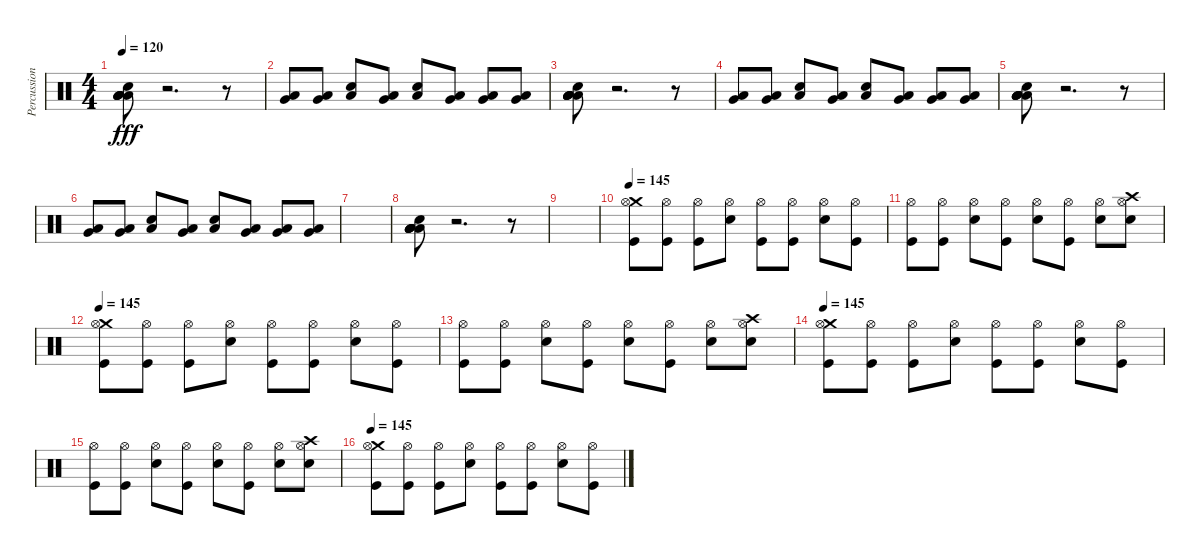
\track ("Percussion" "Percussion") {instrument percussion}
\staff {score}
\articulation defaults
\ts (4 4)
\tempo 120
\clef neutral
\ks c
("Snare (hit) 2" "Low Floor Tom (hit)" "Low Floor Tom (hit)" "Low Floor Tom (hit)" "Low Floor Tom (hit)" "Low Floor Tom (hit)").8{dy fff} r.2{d} r.8 |
("Very Low Tom (hit)" "Low Floor Tom (hit)").8 ("Very Low Tom (hit)" "Low Floor Tom (hit)").8 ("Snare (hit) 2" "Low Floor Tom (hit)").8 ("Very Low Tom (hit)" "Low Floor Tom (hit)").8 ("Snare (hit) 2" "Low Floor Tom (hit)").8 ("Very Low Tom (hit)" "Low Floor Tom (hit)").8 ("Very Low Tom (hit)" "Low Floor Tom (hit)").8 ("Very Low Tom (hit)" "Low Floor Tom (hit)").8 |
("Snare (hit) 2" "Low Floor Tom (hit)" "Low Floor Tom (hit)" "Low Floor Tom (hit)" "Low Floor Tom (hit)" "Low Floor Tom (hit)").8 r.2{d} r.8 |
("Very Low Tom (hit)" "Low Floor Tom (hit)").8 ("Very Low Tom (hit)" "Low Floor Tom (hit)").8 ("Snare (hit) 2" "Low Floor Tom (hit)").8 ("Very Low Tom (hit)" "Low Floor Tom (hit)").8 ("Snare (hit) 2" "Low Floor Tom (hit)").8 ("Very Low Tom (hit)" "Low Floor Tom (hit)").8 ("Very Low Tom (hit)" "Low Floor Tom (hit)").8 ("Very Low Tom (hit)" "Low Floor Tom (hit)").8 |
("Snare (hit) 2" "Low Floor Tom (hit)" "Low Floor Tom (hit)" "Low Floor Tom (hit)" "Low Floor Tom (hit)" "Low Floor Tom (hit)").8 r.2{d} r.8 |
("Very Low Tom (hit)" "Low Floor Tom (hit)").8 ("Very Low Tom (hit)" "Low Floor Tom (hit)").8 ("Snare (hit) 2" "Low Floor Tom (hit)").8 ("Very Low Tom (hit)" "Low Floor Tom (hit)").8 ("Snare (hit) 2" "Low Floor Tom (hit)").8 ("Very Low Tom (hit)" "Low Floor Tom (hit)").8 ("Very Low Tom (hit)" "Low Floor Tom (hit)").8 ("Very Low Tom (hit)" "Low Floor Tom (hit)").8 |
|
("Snare (hit) 2" "Low Floor Tom (hit)" "Low Floor Tom (hit)" "Low Floor Tom (hit)" "Low Floor Tom (hit)" "Low Floor Tom (hit)").8 r.2{d} r.8 |
|
\tempo 145
("Crash medium (hit)" "Kick (hit)" "Hi-Hat (open)").8 ("Kick (hit)" "Hi-Hat (open)").8 ("Kick (hit)" "Hi-Hat (open)").8 ("Snare (hit) 2" "Hi-Hat (open)").8 ("Kick (hit)" "Hi-Hat (open)").8 ("Kick (hit)" "Hi-Hat (open)").8 ("Snare (hit) 2" "Hi-Hat (open)").8 ("Kick (hit)" "Hi-Hat (open)").8 |
("Kick (hit)" "Hi-Hat (open)").8 ("Kick (hit)" "Hi-Hat (open)").8 ("Snare (hit) 2" "Hi-Hat (open)").8 ("Kick (hit)" "Hi-Hat (open)").8 ("Snare (hit) 2" "Hi-Hat (open)").8 ("Kick (hit)" "Hi-Hat (open)").8 ("Snare (hit) 2" "Hi-Hat (open)").8 ("Crash high (hit)" "Snare (hit) 2" "Hi-Hat (open)").8 |
\tempo 145
("Crash medium (hit)" "Kick (hit)" "Hi-Hat (open)").8 ("Kick (hit)" "Hi-Hat (open)").8 ("Kick (hit)" "Hi-Hat (open)").8 ("Snare (hit) 2" "Hi-Hat (open)").8 ("Kick (hit)" "Hi-Hat (open)").8 ("Kick (hit)" "Hi-Hat (open)").8 ("Snare (hit) 2" "Hi-Hat (open)").8 ("Kick (hit)" "Hi-Hat (open)").8 |
("Kick (hit)" "Hi-Hat (open)").8 ("Kick (hit)" "Hi-Hat (open)").8 ("Snare (hit) 2" "Hi-Hat (open)").8 ("Kick (hit)" "Hi-Hat (open)").8 ("Snare (hit) 2" "Hi-Hat (open)").8 ("Kick (hit)" "Hi-Hat (open)").8 ("Snare (hit) 2" "Hi-Hat (open)").8 ("Crash high (hit)" "Snare (hit) 2" "Hi-Hat (open)").8 |
\tempo 145
("Crash medium (hit)" "Kick (hit)" "Hi-Hat (open)").8 ("Kick (hit)" "Hi-Hat (open)").8 ("Kick (hit)" "Hi-Hat (open)").8 ("Snare (hit) 2" "Hi-Hat (open)").8 ("Kick (hit)" "Hi-Hat (open)").8 ("Kick (hit)" "Hi-Hat (open)").8 ("Snare (hit) 2" "Hi-Hat (open)").8 ("Kick (hit)" "Hi-Hat (open)").8 |
("Kick (hit)" "Hi-Hat (open)").8 ("Kick (hit)" "Hi-Hat (open)").8 ("Snare (hit) 2" "Hi-Hat (open)").8 ("Kick (hit)" "Hi-Hat (open)").8 ("Snare (hit) 2" "Hi-Hat (open)").8 ("Kick (hit)" "Hi-Hat (open)").8 ("Snare (hit) 2" "Hi-Hat (open)").8 ("Crash high (hit)" "Snare (hit) 2" "Hi-Hat (open)").8 |
\tempo 145
("Crash medium (hit)" "Kick (hit)" "Hi-Hat (open)").8 ("Kick (hit)" "Hi-Hat (open)").8 ("Kick (hit)" "Hi-Hat (open)").8 ("Snare (hit) 2" "Hi-Hat (open)").8 ("Kick (hit)" "Hi-Hat (open)").8 ("Kick (hit)" "Hi-Hat (open)").8 ("Snare (hit) 2" "Hi-Hat (open)").8 ("Kick (hit)" "Hi-Hat (open)").8
